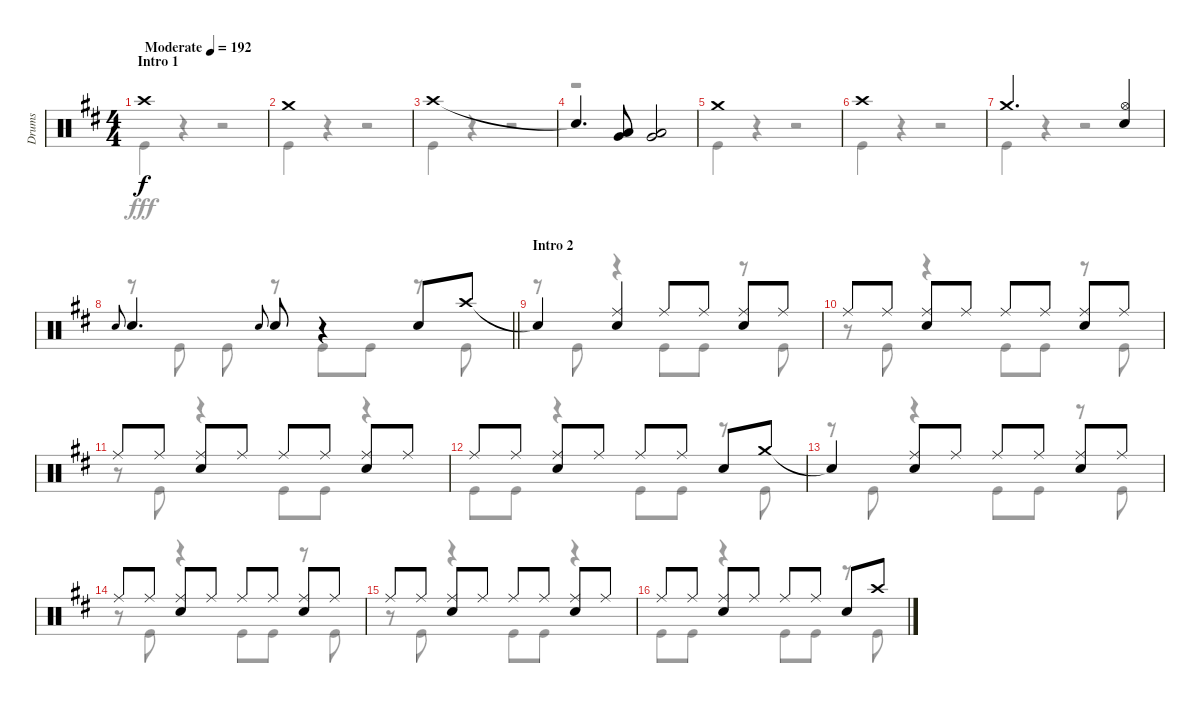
\track ("Drums" "Drums") {instrument percussion}
\staff {score}
\articulation defaults
\voice
\ts (4 4)
\section ("" "Intro 1")
\tempo (192 "Moderate")
\clef neutral
\ks d "Crash high (hit)".1{dy f}
|
"Crash medium (hit)".1 |
"Crash high (hit)".1 |
"Snare (hit)"{t}.4{d} ("Low Tom (hit)" "Very Low Tom (hit)").8 ("Low Tom (hit)" "Very Low Tom (hit)").2 |
"Crash medium (hit)".1 |
"Crash high (hit)".1 |
"Crash medium (hit)".2{d} ("Hi-Hat (open)" "Snare (hit) 2").4 |
\barLineRight lightlight "Snare (hit) 2".8{gr onbeat} "Snare (hit) 2".4{d} "Snare (hit) 2".8{gr onbeat} "Snare (hit) 2".8
r.4 "Snare (hit) 2".8 "Crash high (hit)".8 |
\section ("" "Intro 2")
"Snare (hit)"{t}.4 ("Ride (middle)" "Snare (hit) 2").4 "Ride (middle)".8 "Ride (middle)".8 ("Ride (middle)" "Snare (hit) 2").8 "Ride (middle)".8 |
"Ride (middle)".8 "Ride (middle)".8 ("Ride (middle)" "Snare (hit) 2").8 "Ride (middle)".8 "Ride (middle)".8 "Ride (middle)".8 ("Ride (middle)" "Snare (hit) 2").8 "Ride (middle)".8 |
"Ride (middle)".8 "Ride (middle)".8 ("Ride (middle)" "Snare (hit) 2").8 "Ride (middle)".8 "Ride (middle)".8 "Ride (middle)".8 ("Ride (middle)" "Snare (hit) 2").8 "Ride (middle)".8 |
"Ride (middle)".8 "Ride (middle)".8 ("Ride (middle)" "Snare (hit) 2").8 "Ride (middle)".8 "Ride (middle)".8 "Ride (middle)".8 "Snare (hit) 2".8 "Crash medium (hit)".8 |
"Snare (hit)"{t}.4 ("Ride (middle)" "Snare (hit) 2").8 "Ride (middle)".8 "Ride (middle)".8 "Ride (middle)".8 ("Ride (middle)" "Snare (hit) 2").8 "Ride (middle)".8 |
"Ride (middle)".8 "Ride (middle)".8 ("Ride (middle)" "Snare (hit) 2").8 "Ride (middle)".8 "Ride (middle)".8 "Ride (middle)".8 ("Ride (middle)" "Snare (hit) 2").8 "Ride (middle)".8 |
"Ride (middle)".8 "Ride (middle)".8 ("Ride (middle)" "Snare (hit) 2").8 "Ride (middle)".8 "Ride (middle)".8 "Ride (middle)".8 ("Ride (middle)" "Snare (hit) 2").8 "Ride (middle)".8 |
"Ride (middle)".8 "Ride (middle)".8 ("Ride (middle)" "Snare (hit) 2").8 "Ride (middle)".8 "Ride (middle)".8 "Ride (middle)".8 "Snare (hit) 2".8 "Crash high (hit)".8
\voice
\clef neutral
\ottava regular
\simile none
\ks d "Kick (hit)".4{dy fff}
r.4 r.2 |
"Kick (hit)".4 r.4 r.2 |
"Kick (hit)".4 r.4 r.2 |
r.1 |
"Kick (hit)".4 r.4 r.2 |
"Kick (hit)".4 r.4 r.2 |
"Kick (hit)".4 r.4 r.2 |
\barLineRight lightlight
r.8 "Kick (hit)".8 "Kick (hit)".8 r.8 "Kick (hit)".8 "Kick (hit)".8 r.8 "Kick (hit)".8 |
r.8 "Kick (hit)".8 r.4 "Kick (hit)".8 "Kick (hit)".8 r.8 "Kick (hit)".8 |
r.8 "Kick (hit)".8 r.4 "Kick (hit)".8 "Kick (hit)".8 r.8 "Kick (hit)".8 |
r.8 "Kick (hit)".8 r.4 "Kick (hit)".8 "Kick (hit)".8 r.4 |
"Kick (hit)".8 "Kick (hit)".8 r.4 "Kick (hit)".8 "Kick (hit)".8 r.8 "Kick (hit)".8 |
r.8 "Kick (hit)".8 r.4 "Kick (hit)".8 "Kick (hit)".8 r.8 "Kick (hit)".8 |
r.8 "Kick (hit)".8 r.4 "Kick (hit)".8 "Kick (hit)".8 r.8 "Kick (hit)".8 |
r.8 "Kick (hit)".8 r.4 "Kick (hit)".8 "Kick (hit)".8 r.4 |
"Kick (hit)".8 "Kick (hit)".8 r.4 "Kick (hit)".8 "Kick (hit)".8 r.8 "Kick (hit)".8
